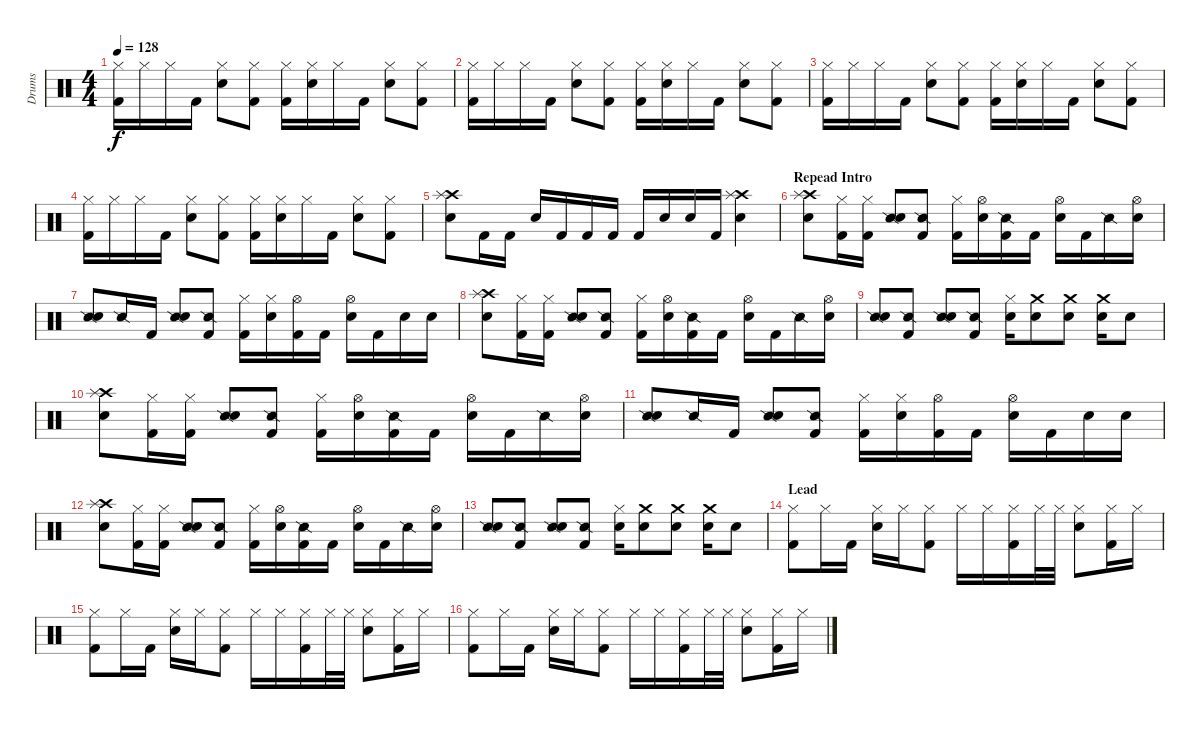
\track ("Drums" "Drums") {instrument percussion}
\staff {score}
\articulation defaults
\ts (4 4)
\tempo 128
\clef neutral
\ks c
("Hi-Hat (closed)" "Kick (hit) 2").16{dy f} "Hi-Hat (closed)".16 "Hi-Hat (closed)".16 "Kick (hit) 2".16 ("Hi-Hat (closed)" "Snare (hit) 2").8 ("Hi-Hat (closed)" "Kick (hit) 2").8 ("Hi-Hat (closed)" "Kick (hit) 2").16 ("Hi-Hat (closed)" "Snare (hit) 2").16 "Hi-Hat (closed)".16 "Kick (hit) 2".16 ("Hi-Hat (closed)" "Snare (hit) 2").8 ("Hi-Hat (closed)" "Kick (hit) 2").8 |
("Hi-Hat (closed)" "Kick (hit) 2").16 "Hi-Hat (closed)".16 "Hi-Hat (closed)".16 "Kick (hit) 2".16 ("Hi-Hat (closed)" "Snare (hit) 2").8 ("Hi-Hat (closed)" "Kick (hit) 2").8 ("Hi-Hat (closed)" "Kick (hit) 2").16 ("Hi-Hat (closed)" "Snare (hit) 2").16 "Hi-Hat (closed)".16 "Kick (hit) 2".16 ("Hi-Hat (closed)" "Snare (hit) 2").8 ("Hi-Hat (closed)" "Kick (hit) 2").8 |
("Hi-Hat (closed)" "Kick (hit) 2").16 "Hi-Hat (closed)".16 "Hi-Hat (closed)".16 "Kick (hit) 2".16 ("Hi-Hat (closed)" "Snare (hit) 2").8 ("Hi-Hat (closed)" "Kick (hit) 2").8 ("Hi-Hat (closed)" "Kick (hit) 2").16 ("Hi-Hat (closed)" "Snare (hit) 2").16 "Hi-Hat (closed)".16 "Kick (hit) 2".16 ("Hi-Hat (closed)" "Snare (hit) 2").8 ("Hi-Hat (closed)" "Kick (hit) 2").8 |
("Hi-Hat (closed)" "Kick (hit) 2").16 "Hi-Hat (closed)".16 "Hi-Hat (closed)".16 "Kick (hit) 2".16 ("Hi-Hat (closed)" "Snare (hit) 2").8 ("Hi-Hat (closed)" "Kick (hit) 2").8 ("Hi-Hat (closed)" "Kick (hit) 2").16 ("Hi-Hat (closed)" "Snare (hit) 2").16 "Hi-Hat (closed)".16 "Kick (hit) 2".16 ("Hi-Hat (closed)" "Snare (hit) 2").8 ("Hi-Hat (closed)" "Kick (hit) 2").8 |
("Crash high (hit)" "Splash (hit)" "Snare (hit) 2").8 "Kick (hit) 2".16 "Kick (hit) 2".16 "Snare (hit) 2".16 "Kick (hit) 2".16 "Kick (hit) 2".16 "Kick (hit) 2".16 "Kick (hit) 2".16 "Snare (hit) 2".16 "Snare (hit) 2".16 "Kick (hit) 2".16 ("Crash high (hit)" "Splash (hit)" "Snare (hit) 2").4 |
\section ("" "Repead Intro")
("Crash high (hit)" "Splash (hit)" "Snare (hit) 2").8 ("Hi-Hat (closed)" "Kick (hit) 2").16 ("Hi-Hat (closed)" "Kick (hit) 2").16 ("Snare (side stick) 2" "Snare (hit) 2").8 ("Snare (side stick) 2" "Kick (hit) 2").8 ("Hi-Hat (closed)" "Kick (hit) 2").16 ("Hi-Hat (open)" "Snare (hit) 2").16 ("Snare (side stick) 2" "Kick (hit) 2").16 "Kick (hit) 2".16 ("Hi-Hat (open)" "Snare (hit) 2").16 "Kick (hit) 2".16 "Snare (side stick) 2".16 ("Hi-Hat (open)" "Snare (hit) 2").16 |
("Snare (side stick) 2" "Snare (hit) 2").8 "Snare (side stick) 2".16 "Kick (hit) 2".16 ("Snare (side stick) 2" "Snare (hit) 2").8 ("Snare (side stick) 2" "Kick (hit) 2").8 ("Hi-Hat (closed)" "Kick (hit) 2").16 ("Hi-Hat (closed)" "Snare (hit) 2").16 ("Hi-Hat (open)" "Kick (hit) 2").16 "Kick (hit) 2".16 ("Hi-Hat (open)" "Snare (hit) 2").16 "Kick (hit) 2".16 "Snare (hit) 2".16 "Snare (hit) 2".16 |
("Crash high (hit)" "Splash (hit)" "Snare (hit) 2").8 ("Hi-Hat (closed)" "Kick (hit) 2").16 ("Hi-Hat (closed)" "Kick (hit) 2").16 ("Snare (side stick) 2" "Snare (hit) 2").8 ("Snare (side stick) 2" "Kick (hit) 2").8 ("Hi-Hat (closed)" "Kick (hit) 2").16 ("Hi-Hat (open)" "Snare (hit) 2").16 ("Snare (side stick) 2" "Kick (hit) 2").16 "Kick (hit) 2".16 ("Hi-Hat (open)" "Snare (hit) 2").16 "Kick (hit) 2".16 "Snare (side stick) 2".16 ("Hi-Hat (open)" "Snare (hit) 2").16 |
("Snare (side stick) 2" "Snare (hit) 2").8 ("Snare (side stick) 2" "Kick (hit) 2").8 ("Snare (side stick) 2" "Snare (hit) 2").8 ("Snare (side stick) 2" "Kick (hit) 2").8 ("Hi-Hat (closed)" "Snare (hit) 2").16 ("Crash medium (hit)" "Snare (hit) 2").8 ("Crash medium (hit)" "Snare (hit) 2").8 ("Crash medium (hit)" "Snare (hit) 2").16 "Snare (hit) 2".8 |
("Crash high (hit)" "Splash (hit)" "Snare (hit) 2").8 ("Hi-Hat (closed)" "Kick (hit) 2").16 ("Hi-Hat (closed)" "Kick (hit) 2").16 ("Snare (side stick) 2" "Snare (hit) 2").8 ("Snare (side stick) 2" "Kick (hit) 2").8 ("Hi-Hat (closed)" "Kick (hit) 2").16 ("Hi-Hat (open)" "Snare (hit) 2").16 ("Snare (side stick) 2" "Kick (hit) 2").16 "Kick (hit) 2".16 ("Hi-Hat (open)" "Snare (hit) 2").16 "Kick (hit) 2".16 "Snare (side stick) 2".16 ("Hi-Hat (open)" "Snare (hit) 2").16 |
("Snare (side stick) 2" "Snare (hit) 2").8 "Snare (side stick) 2".16 "Kick (hit) 2".16 ("Snare (side stick) 2" "Snare (hit) 2").8 ("Snare (side stick) 2" "Kick (hit) 2").8 ("Hi-Hat (closed)" "Kick (hit) 2").16 ("Hi-Hat (closed)" "Snare (hit) 2").16 ("Hi-Hat (open)" "Kick (hit) 2").16 "Kick (hit) 2".16 ("Hi-Hat (open)" "Snare (hit) 2").16 "Kick (hit) 2".16 "Snare (hit) 2".16 "Snare (hit) 2".16 |
("Crash high (hit)" "Splash (hit)" "Snare (hit) 2").8 ("Hi-Hat (closed)" "Kick (hit) 2").16 ("Hi-Hat (closed)" "Kick (hit) 2").16 ("Snare (side stick) 2" "Snare (hit) 2").8 ("Snare (side stick) 2" "Kick (hit) 2").8 ("Hi-Hat (closed)" "Kick (hit) 2").16 ("Hi-Hat (open)" "Snare (hit) 2").16 ("Snare (side stick) 2" "Kick (hit) 2").16 "Kick (hit) 2".16 ("Hi-Hat (open)" "Snare (hit) 2").16 "Kick (hit) 2".16 "Snare (side stick) 2".16 ("Hi-Hat (open)" "Snare (hit) 2").16 |
("Snare (side stick) 2" "Snare (hit) 2").8 ("Snare (side stick) 2" "Kick (hit) 2").8 ("Snare (side stick) 2" "Snare (hit) 2").8 ("Snare (side stick) 2" "Kick (hit) 2").8 ("Hi-Hat (closed)" "Snare (hit) 2").16 ("Crash medium (hit)" "Snare (hit) 2").8 ("Crash medium (hit)" "Snare (hit) 2").8 ("Crash medium (hit)" "Snare (hit) 2").16 "Snare (hit) 2".8 |
\section ("" "Lead")
("Hi-Hat (closed)" "Kick (hit) 2").8 "Hi-Hat (closed)".16 "Kick (hit) 2".16 ("Hi-Hat (closed)" "Snare (hit) 2").16 "Hi-Hat (closed)".16 ("Hi-Hat (closed)" "Kick (hit) 2").8 "Hi-Hat (closed)".16 "Hi-Hat (closed)".16 ("Hi-Hat (closed)" "Kick (hit) 2").16 "Hi-Hat (closed)".32 "Hi-Hat (closed)".32 ("Hi-Hat (closed)" "Snare (hit) 2").8 ("Hi-Hat (closed)" "Kick (hit) 2").16 "Hi-Hat (closed)".16 |
("Hi-Hat (closed)" "Kick (hit) 2").8 "Hi-Hat (closed)".16 "Kick (hit) 2".16 ("Hi-Hat (closed)" "Snare (hit) 2").16 "Hi-Hat (closed)".16 ("Hi-Hat (closed)" "Kick (hit) 2").8 "Hi-Hat (closed)".16 "Hi-Hat (closed)".16 ("Hi-Hat (closed)" "Kick (hit) 2").16 "Hi-Hat (closed)".32 "Hi-Hat (closed)".32 ("Hi-Hat (closed)" "Snare (hit) 2").8 ("Hi-Hat (closed)" "Kick (hit) 2").16 "Hi-Hat (closed)".16 |
("Hi-Hat (closed)" "Kick (hit) 2").8 "Hi-Hat (closed)".16 "Kick (hit) 2".16 ("Hi-Hat (closed)" "Snare (hit) 2").16 "Hi-Hat (closed)".16 ("Hi-Hat (closed)" "Kick (hit) 2").8 "Hi-Hat (closed)".16 "Hi-Hat (closed)".16 ("Hi-Hat (closed)" "Kick (hit) 2").16 "Hi-Hat (closed)".32 "Hi-Hat (closed)".32 ("Hi-Hat (closed)" "Snare (hit) 2").8 ("Hi-Hat (closed)" "Kick (hit) 2").16 "Hi-Hat (closed)".16
